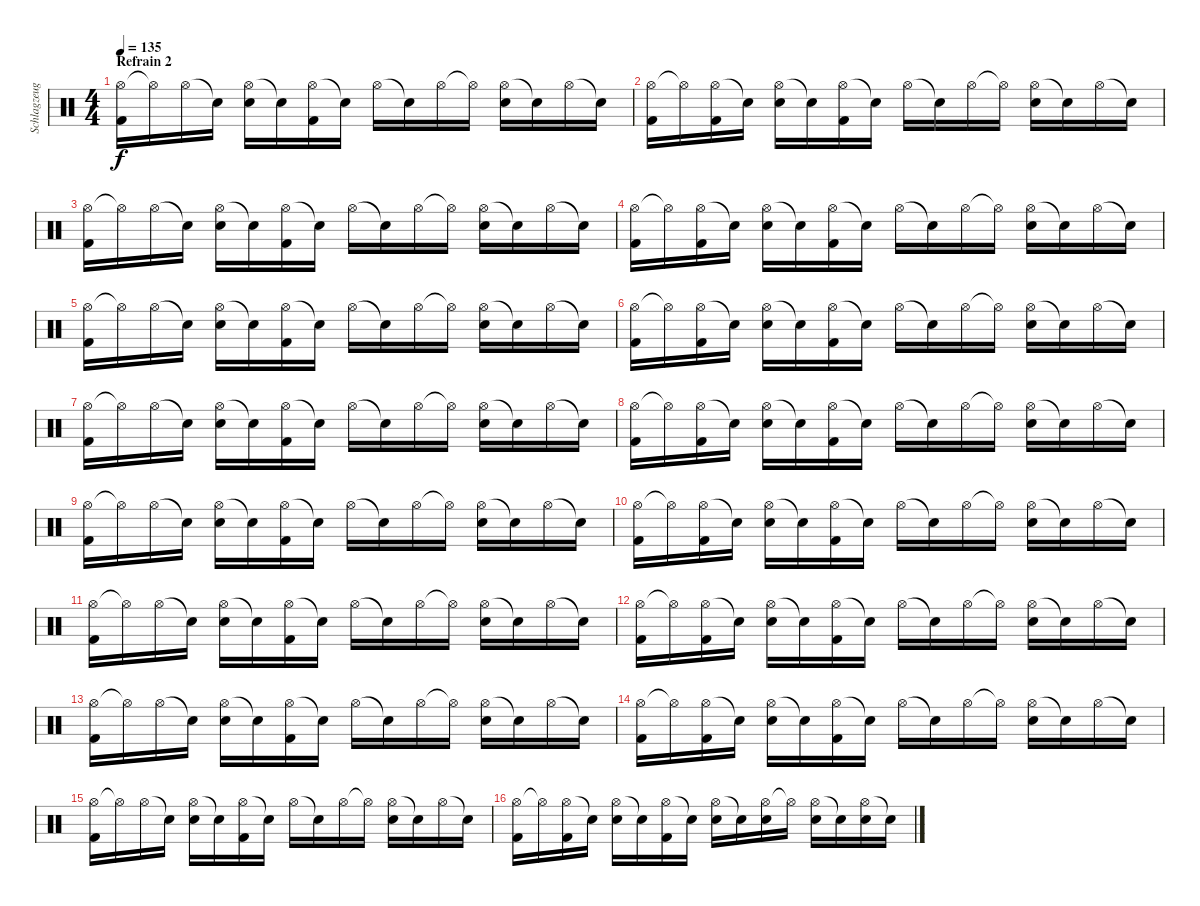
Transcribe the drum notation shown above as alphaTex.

\track ("Schlagzeug" "Schlagzeug") {instrument percussion}
\staff {score}
\articulation defaults
\ts (4 4)
\section ("" "Refrain 2")
\tempo 135
\clef neutral
\ks c
("Hi-Hat (open)" "Kick (hit) 2").16{dy f} "Hi-Hat (open)"{t}.16 "Hi-Hat (open)".16 "Snare (hit)"{t}.16 ("Hi-Hat (open)" "Snare (hit) 2").16 "Snare (hit)"{t}.16 ("Hi-Hat (open)" "Kick (hit) 2").16 "Snare (hit)"{t}.16 "Hi-Hat (open)".16 "Snare (hit)"{t}.16 "Hi-Hat (open)".16 "Hi-Hat (open)"{t}.16 ("Hi-Hat (open)" "Snare (hit) 2").16 "Snare (hit)"{t}.16 "Hi-Hat (open)".16 "Snare (hit)"{t}.16 |
("Hi-Hat (open)" "Kick (hit) 2").16 "Hi-Hat (open)"{t}.16 ("Hi-Hat (open)" "Kick (hit) 2").16 "Snare (hit)"{t}.16 ("Hi-Hat (open)" "Snare (hit) 2").16 "Snare (hit)"{t}.16 ("Hi-Hat (open)" "Kick (hit) 2").16 "Snare (hit)"{t}.16 "Hi-Hat (open)".16 "Snare (hit)"{t}.16 "Hi-Hat (open)".16 "Hi-Hat (open)"{t}.16 ("Hi-Hat (open)" "Snare (hit) 2").16 "Snare (hit)"{t}.16 "Hi-Hat (open)".16 "Snare (hit)"{t}.16 |
("Hi-Hat (open)" "Kick (hit) 2").16 "Hi-Hat (open)"{t}.16 "Hi-Hat (open)".16 "Snare (hit)"{t}.16 ("Hi-Hat (open)" "Snare (hit) 2").16 "Snare (hit)"{t}.16 ("Hi-Hat (open)" "Kick (hit) 2").16 "Snare (hit)"{t}.16 "Hi-Hat (open)".16 "Snare (hit)"{t}.16 "Hi-Hat (open)".16 "Hi-Hat (open)"{t}.16 ("Hi-Hat (open)" "Snare (hit) 2").16 "Snare (hit)"{t}.16 "Hi-Hat (open)".16 "Snare (hit)"{t}.16 |
("Hi-Hat (open)" "Kick (hit) 2").16 "Hi-Hat (open)"{t}.16 ("Hi-Hat (open)" "Kick (hit) 2").16 "Snare (hit)"{t}.16 ("Hi-Hat (open)" "Snare (hit) 2").16 "Snare (hit)"{t}.16 ("Hi-Hat (open)" "Kick (hit) 2").16 "Snare (hit)"{t}.16 "Hi-Hat (open)".16 "Snare (hit)"{t}.16 "Hi-Hat (open)".16 "Hi-Hat (open)"{t}.16 ("Hi-Hat (open)" "Snare (hit) 2").16 "Snare (hit)"{t}.16 "Hi-Hat (open)".16 "Snare (hit)"{t}.16 |
("Hi-Hat (open)" "Kick (hit) 2").16 "Hi-Hat (open)"{t}.16 "Hi-Hat (open)".16 "Snare (hit)"{t}.16 ("Hi-Hat (open)" "Snare (hit) 2").16 "Snare (hit)"{t}.16 ("Hi-Hat (open)" "Kick (hit) 2").16 "Snare (hit)"{t}.16 "Hi-Hat (open)".16 "Snare (hit)"{t}.16 "Hi-Hat (open)".16 "Hi-Hat (open)"{t}.16 ("Hi-Hat (open)" "Snare (hit) 2").16 "Snare (hit)"{t}.16 "Hi-Hat (open)".16 "Snare (hit)"{t}.16 |
("Hi-Hat (open)" "Kick (hit) 2").16 "Hi-Hat (open)"{t}.16 ("Hi-Hat (open)" "Kick (hit) 2").16 "Snare (hit)"{t}.16 ("Hi-Hat (open)" "Snare (hit) 2").16 "Snare (hit)"{t}.16 ("Hi-Hat (open)" "Kick (hit) 2").16 "Snare (hit)"{t}.16 "Hi-Hat (open)".16 "Snare (hit)"{t}.16 "Hi-Hat (open)".16 "Hi-Hat (open)"{t}.16 ("Hi-Hat (open)" "Snare (hit) 2").16 "Snare (hit)"{t}.16 "Hi-Hat (open)".16 "Snare (hit)"{t}.16 |
("Hi-Hat (open)" "Kick (hit) 2").16 "Hi-Hat (open)"{t}.16 "Hi-Hat (open)".16 "Snare (hit)"{t}.16 ("Hi-Hat (open)" "Snare (hit) 2").16 "Snare (hit)"{t}.16 ("Hi-Hat (open)" "Kick (hit) 2").16 "Snare (hit)"{t}.16 "Hi-Hat (open)".16 "Snare (hit)"{t}.16 "Hi-Hat (open)".16 "Hi-Hat (open)"{t}.16 ("Hi-Hat (open)" "Snare (hit) 2").16 "Snare (hit)"{t}.16 "Hi-Hat (open)".16 "Snare (hit)"{t}.16 |
("Hi-Hat (open)" "Kick (hit) 2").16 "Hi-Hat (open)"{t}.16 ("Hi-Hat (open)" "Kick (hit) 2").16 "Snare (hit)"{t}.16 ("Hi-Hat (open)" "Snare (hit) 2").16 "Snare (hit)"{t}.16 ("Hi-Hat (open)" "Kick (hit) 2").16 "Snare (hit)"{t}.16 "Hi-Hat (open)".16 "Snare (hit)"{t}.16 "Hi-Hat (open)".16 "Hi-Hat (open)"{t}.16 ("Hi-Hat (open)" "Snare (hit) 2").16 "Snare (hit)"{t}.16 "Hi-Hat (open)".16 "Snare (hit)"{t}.16 |
("Hi-Hat (open)" "Kick (hit) 2").16 "Hi-Hat (open)"{t}.16 "Hi-Hat (open)".16 "Snare (hit)"{t}.16 ("Hi-Hat (open)" "Snare (hit) 2").16 "Snare (hit)"{t}.16 ("Hi-Hat (open)" "Kick (hit) 2").16 "Snare (hit)"{t}.16 "Hi-Hat (open)".16 "Snare (hit)"{t}.16 "Hi-Hat (open)".16 "Hi-Hat (open)"{t}.16 ("Hi-Hat (open)" "Snare (hit) 2").16 "Snare (hit)"{t}.16 "Hi-Hat (open)".16 "Snare (hit)"{t}.16 |
("Hi-Hat (open)" "Kick (hit) 2").16 "Hi-Hat (open)"{t}.16 ("Hi-Hat (open)" "Kick (hit) 2").16 "Snare (hit)"{t}.16 ("Hi-Hat (open)" "Snare (hit) 2").16 "Snare (hit)"{t}.16 ("Hi-Hat (open)" "Kick (hit) 2").16 "Snare (hit)"{t}.16 "Hi-Hat (open)".16 "Snare (hit)"{t}.16 "Hi-Hat (open)".16 "Hi-Hat (open)"{t}.16 ("Hi-Hat (open)" "Snare (hit) 2").16 "Snare (hit)"{t}.16 "Hi-Hat (open)".16 "Snare (hit)"{t}.16 |
("Hi-Hat (open)" "Kick (hit) 2").16 "Hi-Hat (open)"{t}.16 "Hi-Hat (open)".16 "Snare (hit)"{t}.16 ("Hi-Hat (open)" "Snare (hit) 2").16 "Snare (hit)"{t}.16 ("Hi-Hat (open)" "Kick (hit) 2").16 "Snare (hit)"{t}.16 "Hi-Hat (open)".16 "Snare (hit)"{t}.16 "Hi-Hat (open)".16 "Hi-Hat (open)"{t}.16 ("Hi-Hat (open)" "Snare (hit) 2").16 "Snare (hit)"{t}.16 "Hi-Hat (open)".16 "Snare (hit)"{t}.16 |
("Hi-Hat (open)" "Kick (hit) 2").16 "Hi-Hat (open)"{t}.16 ("Hi-Hat (open)" "Kick (hit) 2").16 "Snare (hit)"{t}.16 ("Hi-Hat (open)" "Snare (hit) 2").16 "Snare (hit)"{t}.16 ("Hi-Hat (open)" "Kick (hit) 2").16 "Snare (hit)"{t}.16 "Hi-Hat (open)".16 "Snare (hit)"{t}.16 "Hi-Hat (open)".16 "Hi-Hat (open)"{t}.16 ("Hi-Hat (open)" "Snare (hit) 2").16 "Snare (hit)"{t}.16 "Hi-Hat (open)".16 "Snare (hit)"{t}.16 |
("Hi-Hat (open)" "Kick (hit) 2").16 "Hi-Hat (open)"{t}.16 "Hi-Hat (open)".16 "Snare (hit)"{t}.16 ("Hi-Hat (open)" "Snare (hit) 2").16 "Snare (hit)"{t}.16 ("Hi-Hat (open)" "Kick (hit) 2").16 "Snare (hit)"{t}.16 "Hi-Hat (open)".16 "Snare (hit)"{t}.16 "Hi-Hat (open)".16 "Hi-Hat (open)"{t}.16 ("Hi-Hat (open)" "Snare (hit) 2").16 "Snare (hit)"{t}.16 "Hi-Hat (open)".16 "Snare (hit)"{t}.16 |
("Hi-Hat (open)" "Kick (hit) 2").16 "Hi-Hat (open)"{t}.16 ("Hi-Hat (open)" "Kick (hit) 2").16 "Snare (hit)"{t}.16 ("Hi-Hat (open)" "Snare (hit) 2").16 "Snare (hit)"{t}.16 ("Hi-Hat (open)" "Kick (hit) 2").16 "Snare (hit)"{t}.16 "Hi-Hat (open)".16 "Snare (hit)"{t}.16 "Hi-Hat (open)".16 "Hi-Hat (open)"{t}.16 ("Hi-Hat (open)" "Snare (hit) 2").16 "Snare (hit)"{t}.16 "Hi-Hat (open)".16 "Snare (hit)"{t}.16 |
("Hi-Hat (open)" "Kick (hit) 2").16 "Hi-Hat (open)"{t}.16 "Hi-Hat (open)".16 "Snare (hit)"{t}.16 ("Hi-Hat (open)" "Snare (hit) 2").16 "Snare (hit)"{t}.16 ("Hi-Hat (open)" "Kick (hit) 2").16 "Snare (hit)"{t}.16 "Hi-Hat (open)".16 "Snare (hit)"{t}.16 "Hi-Hat (open)".16 "Hi-Hat (open)"{t}.16 ("Hi-Hat (open)" "Snare (hit) 2").16 "Snare (hit)"{t}.16 "Hi-Hat (open)".16 "Snare (hit)"{t}.16 |
("Hi-Hat (open)" "Kick (hit) 2").16 "Hi-Hat (open)"{t}.16 ("Hi-Hat (open)" "Kick (hit) 2").16 "Snare (hit)"{t}.16 ("Hi-Hat (open)" "Snare (hit) 2").16 "Snare (hit)"{t}.16 ("Hi-Hat (open)" "Kick (hit) 2").16 "Snare (hit)"{t}.16 ("Hi-Hat (open)" "Snare (hit) 2").16 "Snare (hit)"{t}.16 ("Hi-Hat (open)" "Snare (hit) 2").16 "Hi-Hat (open)"{t}.16 ("Hi-Hat (open)" "Snare (hit) 2").16 "Snare (hit)"{t}.16 ("Hi-Hat (open)" "Snare (hit) 2").16 "Snare (hit)"{t}.16
